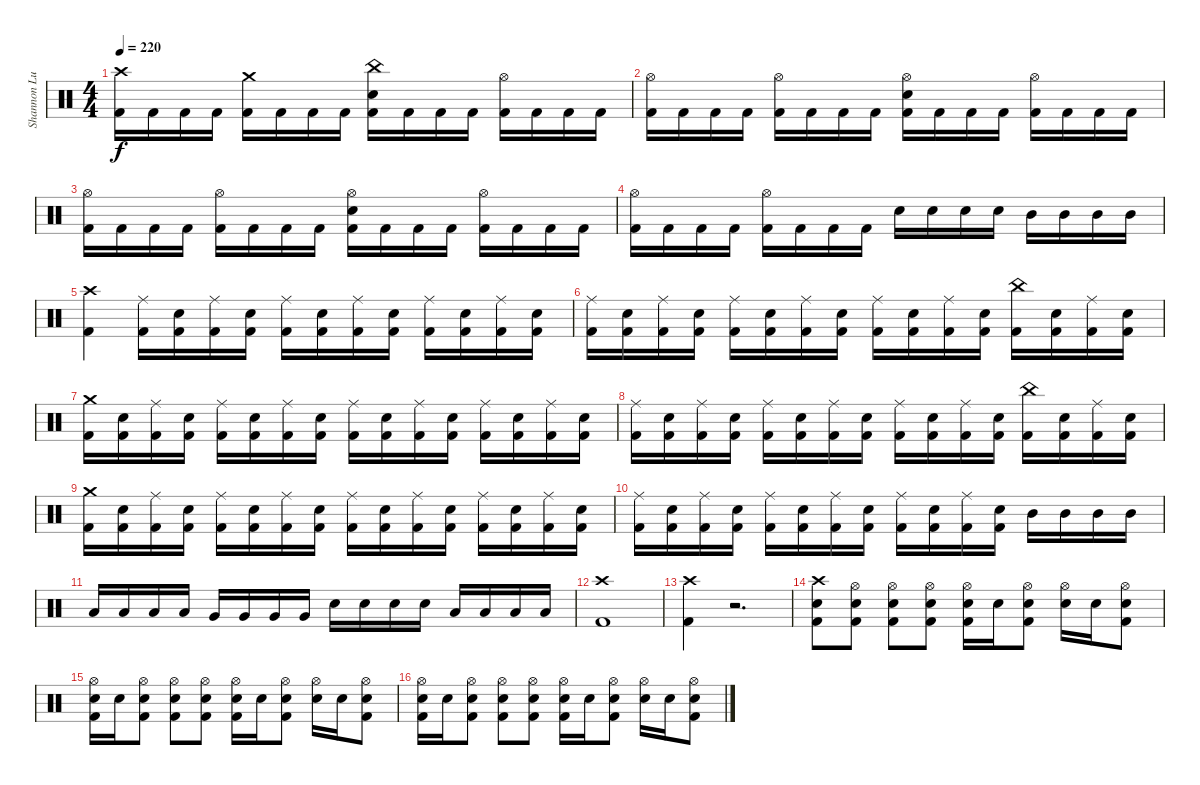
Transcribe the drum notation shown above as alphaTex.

\track ("Shannon Lucas [Drums (Since 2007)]" "Shannon Lu") {instrument percussion}
\staff {score}
\articulation defaults
\ts (4 4)
\tempo 220
\clef neutral
\ks c
("Crash high (hit)" "Kick (hit) 2").16{dy f} "Kick (hit) 2".16 "Kick (hit) 2".16 "Kick (hit) 2".16 ("Crash medium (hit)" "Kick (hit) 2").16 "Kick (hit) 2".16 "Kick (hit) 2".16 "Kick (hit) 2".16 ("Snare (hit) 2" "China (hit)" "Kick (hit) 2").16 "Kick (hit) 2".16 "Kick (hit) 2".16 "Kick (hit) 2".16 ("Hi-Hat (open)" "Kick (hit) 2").16 "Kick (hit) 2".16 "Kick (hit) 2".16 "Kick (hit) 2".16 |
("Hi-Hat (open)" "Kick (hit) 2").16 "Kick (hit) 2".16 "Kick (hit) 2".16 "Kick (hit) 2".16 ("Hi-Hat (open)" "Kick (hit) 2").16 "Kick (hit) 2".16 "Kick (hit) 2".16 "Kick (hit) 2".16 ("Snare (hit) 2" "Hi-Hat (open)" "Kick (hit) 2").16 "Kick (hit) 2".16 "Kick (hit) 2".16 "Kick (hit) 2".16 ("Hi-Hat (open)" "Kick (hit) 2").16 "Kick (hit) 2".16 "Kick (hit) 2".16 "Kick (hit) 2".16 |
("Hi-Hat (open)" "Kick (hit) 2").16 "Kick (hit) 2".16 "Kick (hit) 2".16 "Kick (hit) 2".16 ("Hi-Hat (open)" "Kick (hit) 2").16 "Kick (hit) 2".16 "Kick (hit) 2".16 "Kick (hit) 2".16 ("Snare (hit) 2" "Hi-Hat (open)" "Kick (hit) 2").16 "Kick (hit) 2".16 "Kick (hit) 2".16 "Kick (hit) 2".16 ("Hi-Hat (open)" "Kick (hit) 2").16 "Kick (hit) 2".16 "Kick (hit) 2".16 "Kick (hit) 2".16 |
("Hi-Hat (open)" "Kick (hit) 2").16 "Kick (hit) 2".16 "Kick (hit) 2".16 "Kick (hit) 2".16 ("Hi-Hat (open)" "Kick (hit) 2").16 "Kick (hit) 2".16 "Kick (hit) 2".16 "Kick (hit) 2".16 "Snare (hit) 2".16 "Snare (hit) 2".16 "Snare (hit) 2".16 "Snare (hit) 2".16 "Mid Tom (hit)".16 "Mid Tom (hit)".16 "Mid Tom (hit)".16 "Mid Tom (hit)".16 |
("Crash high (hit)" "Kick (hit) 2").4 ("Ride (middle)" "Kick (hit) 2").16 ("Snare (hit) 2" "Kick (hit) 2").16 ("Ride (middle)" "Kick (hit) 2").16 ("Snare (hit) 2" "Kick (hit) 2").16 ("Ride (middle)" "Kick (hit) 2").16 ("Snare (hit) 2" "Kick (hit) 2").16 ("Ride (middle)" "Kick (hit) 2").16 ("Snare (hit) 2" "Kick (hit) 2").16 ("Ride (middle)" "Kick (hit) 2").16 ("Snare (hit) 2" "Kick (hit) 2").16 ("Ride (middle)" "Kick (hit) 2").16 ("Snare (hit) 2" "Kick (hit) 2").16 |
("Ride (middle)" "Kick (hit) 2").16 ("Snare (hit) 2" "Kick (hit) 2").16 ("Ride (middle)" "Kick (hit) 2").16 ("Snare (hit) 2" "Kick (hit) 2").16 ("Ride (middle)" "Kick (hit) 2").16 ("Snare (hit) 2" "Kick (hit) 2").16 ("Ride (middle)" "Kick (hit) 2").16 ("Snare (hit) 2" "Kick (hit) 2").16 ("Ride (middle)" "Kick (hit) 2").16 ("Snare (hit) 2" "Kick (hit) 2").16 ("Ride (middle)" "Kick (hit) 2").16 ("Snare (hit) 2" "Kick (hit) 2").16 ("China (hit)" "Kick (hit) 2").16 ("Snare (hit) 2" "Kick (hit) 2").16 ("Ride (middle)" "Kick (hit) 2").16 ("Snare (hit) 2" "Kick (hit) 2").16 |
("Crash medium (hit)" "Kick (hit) 2").16 ("Snare (hit) 2" "Kick (hit) 2").16 ("Ride (middle)" "Kick (hit) 2").16 ("Snare (hit) 2" "Kick (hit) 2").16 ("Ride (middle)" "Kick (hit) 2").16 ("Snare (hit) 2" "Kick (hit) 2").16 ("Ride (middle)" "Kick (hit) 2").16 ("Snare (hit) 2" "Kick (hit) 2").16 ("Ride (middle)" "Kick (hit) 2").16 ("Snare (hit) 2" "Kick (hit) 2").16 ("Ride (middle)" "Kick (hit) 2").16 ("Snare (hit) 2" "Kick (hit) 2").16 ("Ride (middle)" "Kick (hit) 2").16 ("Snare (hit) 2" "Kick (hit) 2").16 ("Ride (middle)" "Kick (hit) 2").16 ("Snare (hit) 2" "Kick (hit) 2").16 |
("Ride (middle)" "Kick (hit) 2").16 ("Snare (hit) 2" "Kick (hit) 2").16 ("Ride (middle)" "Kick (hit) 2").16 ("Snare (hit) 2" "Kick (hit) 2").16 ("Ride (middle)" "Kick (hit) 2").16 ("Snare (hit) 2" "Kick (hit) 2").16 ("Ride (middle)" "Kick (hit) 2").16 ("Snare (hit) 2" "Kick (hit) 2").16 ("Ride (middle)" "Kick (hit) 2").16 ("Snare (hit) 2" "Kick (hit) 2").16 ("Ride (middle)" "Kick (hit) 2").16 ("Snare (hit) 2" "Kick (hit) 2").16 ("China (hit)" "Kick (hit) 2").16 ("Snare (hit) 2" "Kick (hit) 2").16 ("Ride (middle)" "Kick (hit) 2").16 ("Snare (hit) 2" "Kick (hit) 2").16 |
("Crash medium (hit)" "Kick (hit) 2").16 ("Snare (hit) 2" "Kick (hit) 2").16 ("Ride (middle)" "Kick (hit) 2").16 ("Snare (hit) 2" "Kick (hit) 2").16 ("Ride (middle)" "Kick (hit) 2").16 ("Snare (hit) 2" "Kick (hit) 2").16 ("Ride (middle)" "Kick (hit) 2").16 ("Snare (hit) 2" "Kick (hit) 2").16 ("Ride (middle)" "Kick (hit) 2").16 ("Snare (hit) 2" "Kick (hit) 2").16 ("Ride (middle)" "Kick (hit) 2").16 ("Snare (hit) 2" "Kick (hit) 2").16 ("Ride (middle)" "Kick (hit) 2").16 ("Snare (hit) 2" "Kick (hit) 2").16 ("Ride (middle)" "Kick (hit) 2").16 ("Snare (hit) 2" "Kick (hit) 2").16 |
("Ride (middle)" "Kick (hit) 2").16 ("Snare (hit) 2" "Kick (hit) 2").16 ("Ride (middle)" "Kick (hit) 2").16 ("Snare (hit) 2" "Kick (hit) 2").16 ("Ride (middle)" "Kick (hit) 2").16 ("Snare (hit) 2" "Kick (hit) 2").16 ("Ride (middle)" "Kick (hit) 2").16 ("Snare (hit) 2" "Kick (hit) 2").16 ("Ride (middle)" "Kick (hit) 2").16 ("Snare (hit) 2" "Kick (hit) 2").16 ("Ride (middle)" "Kick (hit) 2").16 ("Snare (hit) 2" "Kick (hit) 2").16 "Mid Tom (hit)".16 "Mid Tom (hit)".16 "Mid Tom (hit)".16 "Mid Tom (hit)".16 |
"Low Tom (hit)".16 "Low Tom (hit)".16 "Low Tom (hit)".16 "Low Tom (hit)".16 "Very Low Tom (hit)".16 "Very Low Tom (hit)".16 "Very Low Tom (hit)".16 "Very Low Tom (hit)".16 "Snare (hit) 2".16 "Snare (hit) 2".16 "Snare (hit) 2".16 "Snare (hit) 2".16 "Low Floor Tom (hit)".16 "Low Floor Tom (hit)".16 "Low Floor Tom (hit)".16 "Low Floor Tom (hit)".16 |
("Crash high (hit)" "Kick (hit) 2").1 |
("Kick (hit) 2" "Crash high (hit)").4 r.2{d} |
("Kick (hit) 2" "Crash high (hit)" "Snare (hit) 2").8 ("Kick (hit) 2" "Hi-Hat (open)" "Snare (hit) 2").8 ("Kick (hit) 2" "Hi-Hat (open)" "Snare (hit) 2").8 ("Kick (hit) 2" "Hi-Hat (open)" "Snare (hit) 2").8 ("Kick (hit) 2" "Hi-Hat (open)" "Snare (hit) 2").16 "Snare (hit) 2".16 ("Kick (hit) 2" "Hi-Hat (open)" "Snare (hit) 2").8 ("Hi-Hat (open)" "Snare (hit) 2").16 "Snare (hit) 2".16 ("Kick (hit) 2" "Hi-Hat (open)" "Snare (hit) 2").8 |
("Kick (hit) 2" "Hi-Hat (open)" "Snare (hit) 2").16 "Snare (hit) 2".16 ("Kick (hit) 2" "Hi-Hat (open)" "Snare (hit) 2").8 ("Kick (hit) 2" "Hi-Hat (open)" "Snare (hit) 2").8 ("Kick (hit) 2" "Hi-Hat (open)" "Snare (hit) 2").8 ("Kick (hit) 2" "Hi-Hat (open)" "Snare (hit) 2").16 "Snare (hit) 2".16 ("Kick (hit) 2" "Hi-Hat (open)" "Snare (hit) 2").8 ("Hi-Hat (open)" "Snare (hit) 2").16 "Snare (hit) 2".16 ("Kick (hit) 2" "Hi-Hat (open)" "Snare (hit) 2").8 |
("Kick (hit) 2" "Hi-Hat (open)" "Snare (hit) 2").16 "Snare (hit) 2".16 ("Kick (hit) 2" "Hi-Hat (open)" "Snare (hit) 2").8 ("Kick (hit) 2" "Hi-Hat (open)" "Snare (hit) 2").8 ("Kick (hit) 2" "Hi-Hat (open)" "Snare (hit) 2").8 ("Kick (hit) 2" "Hi-Hat (open)" "Snare (hit) 2").16 "Snare (hit) 2".16 ("Kick (hit) 2" "Hi-Hat (open)" "Snare (hit) 2").8 ("Hi-Hat (open)" "Snare (hit) 2").16 "Snare (hit) 2".16 ("Kick (hit) 2" "Hi-Hat (open)" "Snare (hit) 2").8
